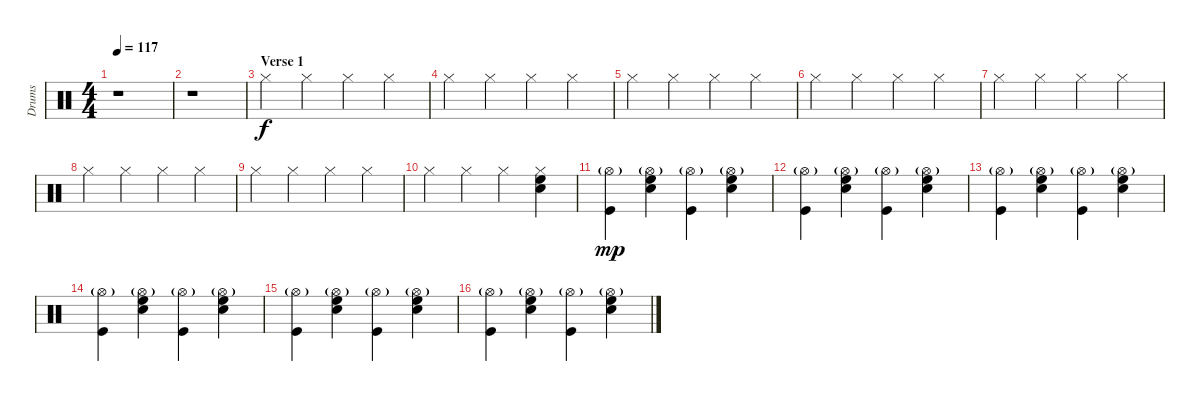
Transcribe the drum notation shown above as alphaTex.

\track ("Drums" "Drums") {instrument percussion}
\staff {score}
\articulation defaults
\ts (4 4)
\tempo 117
\clef neutral
\ks c
r.1{dy f} |
r.1 |
\section ("" "Verse 1")
"Hi-Hat (closed)".4 "Hi-Hat (closed)".4 "Hi-Hat (closed)".4 "Hi-Hat (closed)".4 |
"Hi-Hat (closed)".4 "Hi-Hat (closed)".4 "Hi-Hat (closed)".4 "Hi-Hat (closed)".4 |
"Hi-Hat (closed)".4 "Hi-Hat (closed)".4 "Hi-Hat (closed)".4 "Hi-Hat (closed)".4 |
"Hi-Hat (closed)".4 "Hi-Hat (closed)".4 "Hi-Hat (closed)".4 "Hi-Hat (closed)".4 |
"Hi-Hat (closed)".4 "Hi-Hat (closed)".4 "Hi-Hat (closed)".4 "Hi-Hat (closed)".4 |
"Hi-Hat (closed)".4 "Hi-Hat (closed)".4 "Hi-Hat (closed)".4 "Hi-Hat (closed)".4 |
"Hi-Hat (closed)".4 "Hi-Hat (closed)".4 "Hi-Hat (closed)".4 "Hi-Hat (closed)".4 |
"Hi-Hat (closed)".4 "Hi-Hat (closed)".4 "Hi-Hat (closed)".4 ("Hi-Hat (closed)" "High Floor Tom (hit)" "Electric Snare (hit)").4 |
("Hi-Hat (open)"{g} "Kick (hit)").4{dy mp} ("Hi-Hat (open)"{g} "High Floor Tom (hit)" "Electric Snare (hit)").4 ("Hi-Hat (open)"{g} "Kick (hit)").4 ("Hi-Hat (open)"{g} "High Floor Tom (hit)" "Electric Snare (hit)").4 |
("Hi-Hat (open)"{g} "Kick (hit)").4 ("Hi-Hat (open)"{g} "High Floor Tom (hit)" "Electric Snare (hit)").4 ("Hi-Hat (open)"{g} "Kick (hit)").4 ("Hi-Hat (open)"{g} "High Floor Tom (hit)" "Electric Snare (hit)").4 |
("Hi-Hat (open)"{g} "Kick (hit)").4 ("Hi-Hat (open)"{g} "High Floor Tom (hit)" "Electric Snare (hit)").4 ("Hi-Hat (open)"{g} "Kick (hit)").4 ("Hi-Hat (open)"{g} "High Floor Tom (hit)" "Electric Snare (hit)").4 |
("Hi-Hat (open)"{g} "Kick (hit)").4 ("Hi-Hat (open)"{g} "High Floor Tom (hit)" "Electric Snare (hit)").4 ("Hi-Hat (open)"{g} "Kick (hit)").4 ("Hi-Hat (open)"{g} "High Floor Tom (hit)" "Electric Snare (hit)").4 |
("Hi-Hat (open)"{g} "Kick (hit)").4 ("Hi-Hat (open)"{g} "High Floor Tom (hit)" "Electric Snare (hit)").4 ("Hi-Hat (open)"{g} "Kick (hit)").4 ("Hi-Hat (open)"{g} "High Floor Tom (hit)" "Electric Snare (hit)").4 |
("Hi-Hat (open)"{g} "Kick (hit)").4 ("Hi-Hat (open)"{g} "High Floor Tom (hit)" "Electric Snare (hit)").4 ("Hi-Hat (open)"{g} "Kick (hit)").4 ("Hi-Hat (open)"{g} "High Floor Tom (hit)" "Electric Snare (hit)").4
